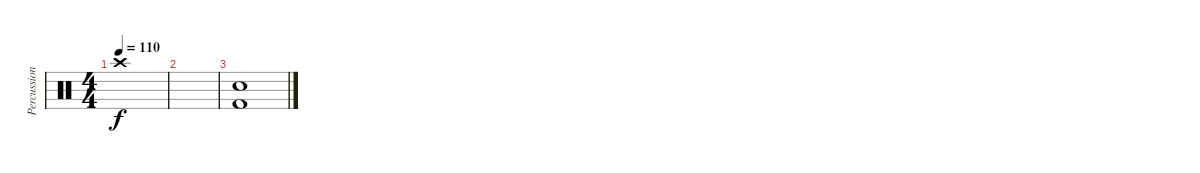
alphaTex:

\track ("Percussion" "Percussion") {instrument percussion}
\staff {score}
\articulation defaults
\ts (4 4)
\tempo 110
\clef neutral
\ks c "Crash high (hit)".1{dy f}
|
|
("Kick (hit) 2" "Electric Snare (hit)").1
